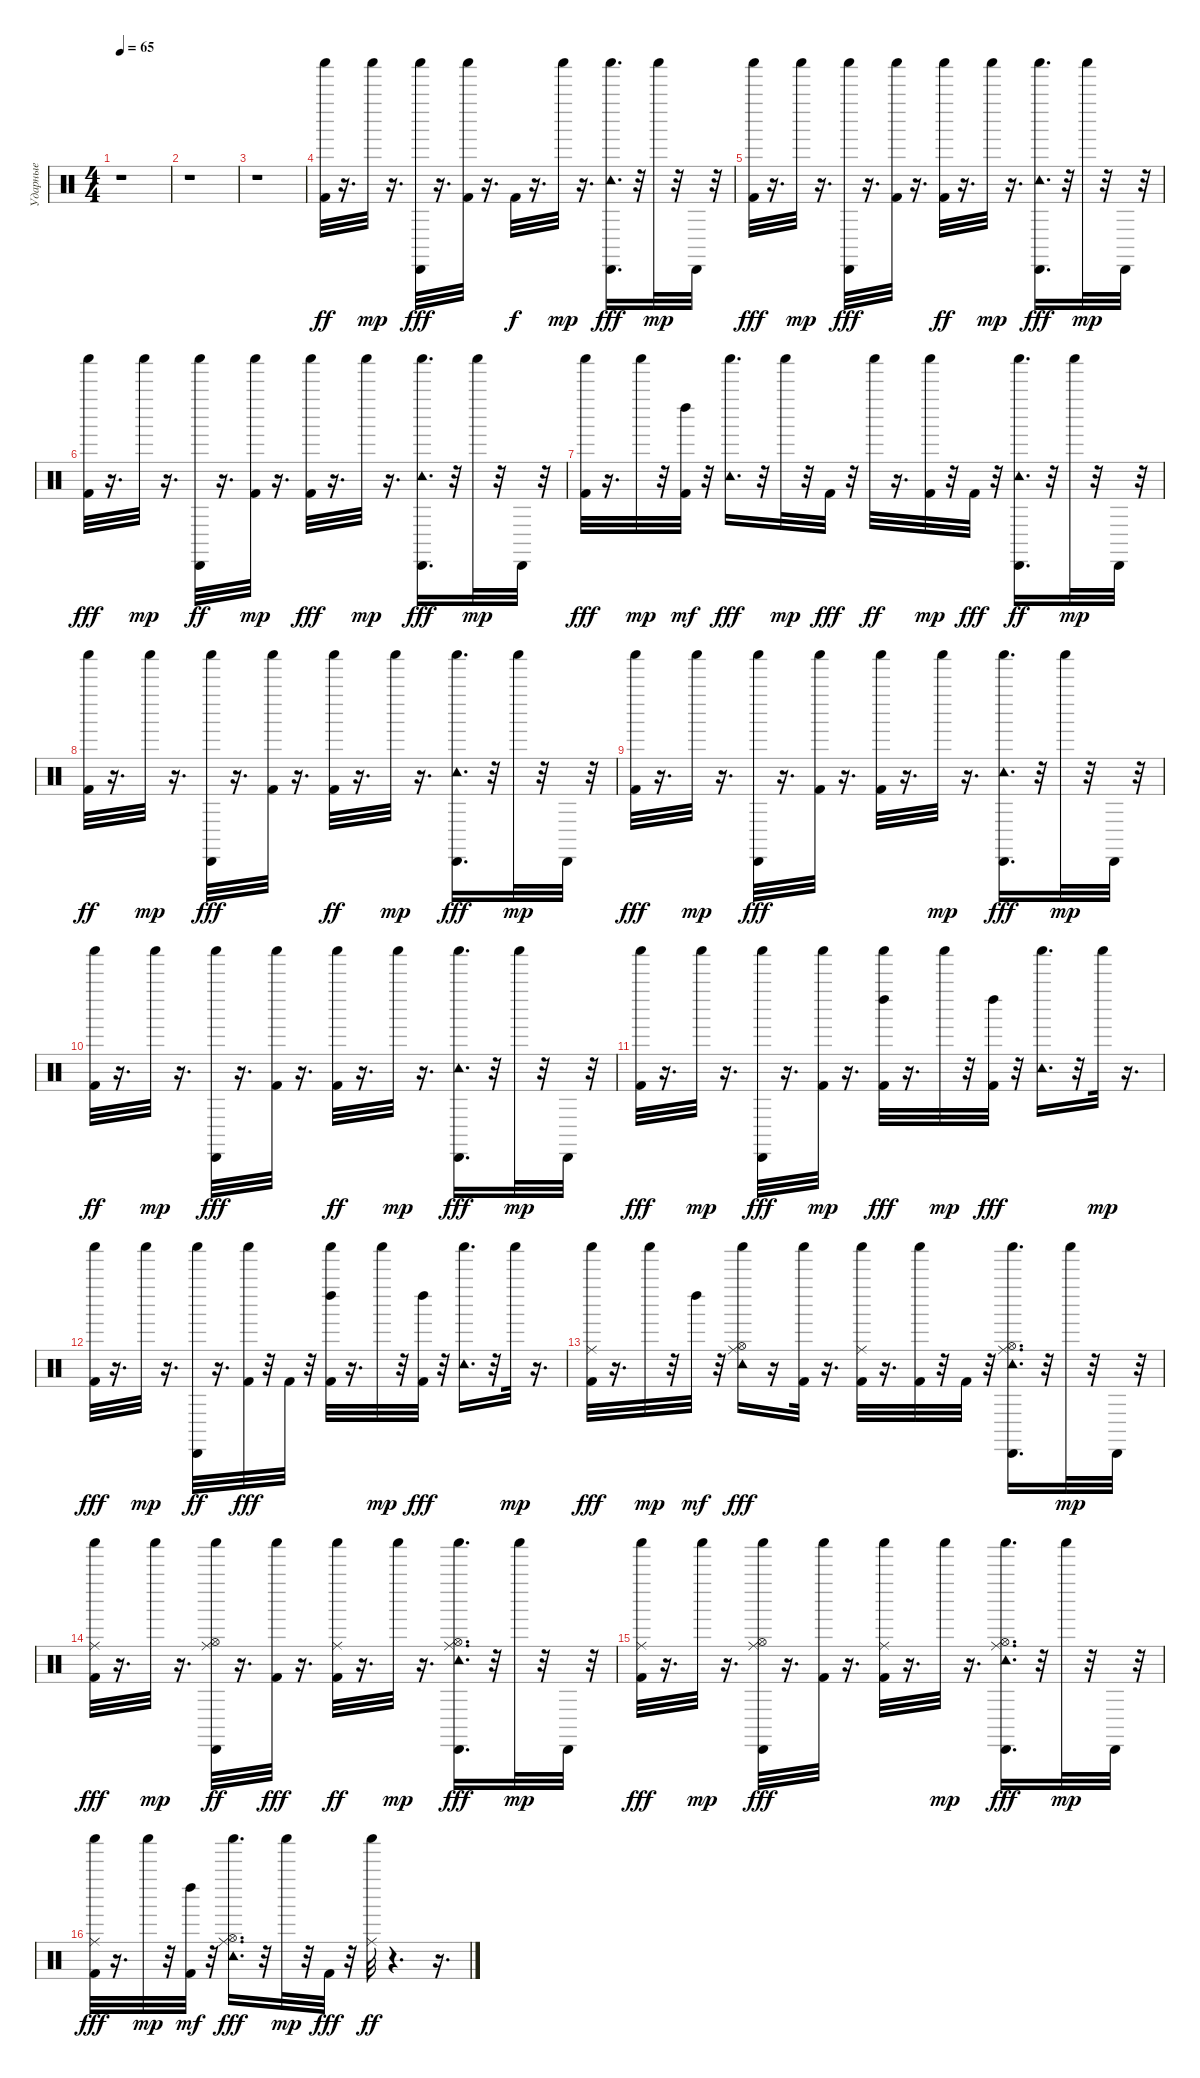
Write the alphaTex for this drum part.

\track ("Ударные" "Ударные") {instrument percussion}
\staff {score}
\articulation defaults
\ts (4 4)
\tempo 65
\clef neutral
\ks c
r.1{dy ff} |
r.1 |
r.1 |
("Kick (hit) 2" "Shaker (hit)").32 r.16{d} "Shaker (hit)".32{dy mp} r.16{d} ("Cabasa (hit)" "Shaker (hit)").32{dy fff} r.16{d} ("Shaker (hit)" "Kick (hit) 2").32 r.16{d} "Kick (hit) 2".32{dy f} r.16{d} "Shaker (hit)".32{dy mp} r.16{d} ("Shaker (hit)" "Cabasa (hit)" "Tambourine (hit)").16{d dy fff} r.32 "Shaker (hit)".32{dy mp} r.32 "Cabasa (hit)".32 r.32 |
("Kick (hit) 2" "Shaker (hit)").32{dy fff} r.16{d} "Shaker (hit)".32{dy mp} r.16{d} ("Cabasa (hit)" "Shaker (hit)").32{dy fff} r.16{d} ("Shaker (hit)" "Kick (hit) 2").32 r.16{d} ("Kick (hit) 2" "Shaker (hit)").32{dy ff} r.16{d} "Shaker (hit)".32{dy mp} r.16{d} ("Shaker (hit)" "Tambourine (hit)" "Cabasa (hit)").16{d dy fff} r.32 "Shaker (hit)".32{dy mp} r.32 "Cabasa (hit)".32 r.32 |
("Shaker (hit)" "Kick (hit) 2").32{dy fff} r.16{d} "Shaker (hit)".32{dy mp} r.16{d} ("Shaker (hit)" "Cabasa (hit)").32{dy ff} r.16{d} ("Kick (hit) 2" "Shaker (hit)").32{dy mp} r.16{d} ("Shaker (hit)" "Kick (hit) 2").32{dy fff} r.16{d} "Shaker (hit)".32{dy mp} r.16{d} ("Cabasa (hit)" "Shaker (hit)" "Tambourine (hit)").16{d dy fff} r.32 "Shaker (hit)".32{dy mp} r.32 "Cabasa (hit)".32 r.32 |
("Kick (hit) 2" "Shaker (hit)").32{dy fff} r.16{d} "Shaker (hit)".32{dy mp} r.32 ("Kick (hit) 2" "Left Maraca (hit)").32{dy mf} r.32 ("Tambourine (hit)" "Shaker (hit)").16{d dy fff} r.32 "Shaker (hit)".32{dy mp} r.32 "Kick (hit) 2".32{dy fff} r.32 "Shaker (hit)".32{dy ff} r.16{d} ("Kick (hit) 2" "Shaker (hit)").32{dy mp} r.32 "Kick (hit) 2".32{dy fff} r.32 ("Tambourine (hit)" "Shaker (hit)" "Cabasa (hit)").16{d dy ff} r.32 "Shaker (hit)".32{dy mp} r.32 "Cabasa (hit)".32 r.32 |
("Kick (hit) 2" "Shaker (hit)").32{dy ff} r.16{d} "Shaker (hit)".32{dy mp} r.16{d} ("Cabasa (hit)" "Shaker (hit)").32{dy fff} r.16{d} ("Shaker (hit)" "Kick (hit) 2").32 r.16{d} ("Kick (hit) 2" "Shaker (hit)").32{dy ff} r.16{d} "Shaker (hit)".32{dy mp} r.16{d} ("Cabasa (hit)" "Shaker (hit)" "Tambourine (hit)").16{d dy fff} r.32 "Shaker (hit)".32{dy mp} r.32 "Cabasa (hit)".32 r.32 |
("Shaker (hit)" "Kick (hit) 2").32{dy fff} r.16{d} "Shaker (hit)".32{dy mp} r.16{d} ("Shaker (hit)" "Cabasa (hit)").32{dy fff} r.16{d} ("Shaker (hit)" "Kick (hit) 2").32 r.16{d} ("Shaker (hit)" "Kick (hit) 2").32 r.16{d} "Shaker (hit)".32{dy mp} r.16{d} ("Shaker (hit)" "Tambourine (hit)" "Cabasa (hit)").16{d dy fff} r.32 "Shaker (hit)".32{dy mp} r.32 "Cabasa (hit)".32 r.32 |
("Kick (hit) 2" "Shaker (hit)").32{dy ff} r.16{d} "Shaker (hit)".32{dy mp} r.16{d} ("Cabasa (hit)" "Shaker (hit)").32{dy fff} r.16{d} ("Shaker (hit)" "Kick (hit) 2").32 r.16{d} ("Kick (hit) 2" "Shaker (hit)").32{dy ff} r.16{d} "Shaker (hit)".32{dy mp} r.16{d} ("Shaker (hit)" "Cabasa (hit)" "Tambourine (hit)").16{d dy fff} r.32 "Shaker (hit)".32{dy mp} r.32 "Cabasa (hit)".32 r.32 |
("Shaker (hit)" "Kick (hit) 2").32{dy fff} r.16{d} "Shaker (hit)".32{dy mp} r.16{d} ("Cabasa (hit)" "Shaker (hit)").32{dy fff} r.16{d} ("Kick (hit) 2" "Shaker (hit)").32{dy mp} r.16{d} ("Kick (hit) 2" "Left Maraca (hit)" "Shaker (hit)").32{dy fff} r.16{d} "Shaker (hit)".32{dy mp} r.32 ("Left Maraca (hit)" "Kick (hit) 2").32{dy fff} r.32 ("Shaker (hit)" "Tambourine (hit)").16{d} r.32 "Shaker (hit)".32{dy mp} r.16{d} |
("Shaker (hit)" "Kick (hit) 2").32{dy fff} r.16{d} "Shaker (hit)".32{dy mp} r.16{d} ("Shaker (hit)" "Cabasa (hit)").32{dy ff} r.16{d} ("Shaker (hit)" "Kick (hit) 2").32{dy fff} r.32 "Kick (hit) 2".32 r.32 ("Left Maraca (hit)" "Shaker (hit)" "Kick (hit) 2").32 r.16{d} "Shaker (hit)".32{dy mp} r.32 ("Left Maraca (hit)" "Kick (hit) 2").32{dy fff} r.32 ("Tambourine (hit)" "Shaker (hit)").16{d} r.32 "Shaker (hit)".32{dy mp} r.16{d} |
("Shaker (hit)" "Kick (hit) 2" "Ride (middle)").32{dy fff} r.16{d} "Shaker (hit)".32{dy mp} r.32 "Left Maraca (hit)".32{dy mf} r.32 ("Shaker (hit)" "Tambourine (hit)" "Hi-Hat (open)" "Ride (middle)").16{dy fff} r.16 ("Shaker (hit)" "Kick (hit) 2").32 r.16{d} ("Shaker (hit)" "Kick (hit) 2" "Ride (middle)").32 r.16{d} ("Shaker (hit)" "Kick (hit) 2").32 r.32 "Kick (hit) 2".32 r.32 ("Cabasa (hit)" "Shaker (hit)" "Tambourine (hit)" "Hi-Hat (open)" "Ride (middle)").16{d} r.32 "Shaker (hit)".32{dy mp} r.32 "Cabasa (hit)".32 r.32 |
("Kick (hit) 2" "Shaker (hit)" "Ride (middle)").32{dy fff} r.16{d} "Shaker (hit)".32{dy mp} r.16{d} ("Shaker (hit)" "Hi-Hat (open)" "Ride (middle)" "Cabasa (hit)").32{dy ff} r.16{d} ("Shaker (hit)" "Kick (hit) 2").32{dy fff} r.16{d} ("Ride (middle)" "Kick (hit) 2" "Shaker (hit)").32{dy ff} r.16{d} "Shaker (hit)".32{dy mp} r.16{d} ("Shaker (hit)" "Tambourine (hit)" "Cabasa (hit)" "Ride (middle)" "Hi-Hat (open)").16{d dy fff} r.32 "Shaker (hit)".32{dy mp} r.32 "Cabasa (hit)".32 r.32 |
("Kick (hit) 2" "Shaker (hit)" "Ride (middle)").32{dy fff} r.16{d} "Shaker (hit)".32{dy mp} r.16{d} ("Ride (middle)" "Hi-Hat (open)" "Cabasa (hit)" "Shaker (hit)").32{dy fff} r.16{d} ("Shaker (hit)" "Kick (hit) 2").32 r.16{d} ("Shaker (hit)" "Kick (hit) 2" "Ride (middle)").32 r.16{d} "Shaker (hit)".32{dy mp} r.16{d} ("Ride (middle)" "Shaker (hit)" "Cabasa (hit)" "Tambourine (hit)" "Hi-Hat (open)").16{d dy fff} r.32 "Shaker (hit)".32{dy mp} r.32 "Cabasa (hit)".32 r.32 |
("Kick (hit) 2" "Shaker (hit)" "Ride (middle)").32{dy fff} r.16{d} "Shaker (hit)".32{dy mp} r.32 ("Kick (hit) 2" "Left Maraca (hit)").32{dy mf} r.32 ("Shaker (hit)" "Tambourine (hit)" "Ride (middle)" "Hi-Hat (open)").16{d dy fff} r.32 "Shaker (hit)".32{dy mp} r.32 "Kick (hit) 2".32{dy fff} r.32 ("Ride (middle)" "Shaker (hit)").32{dy ff} r.4{d} r.16{d}
